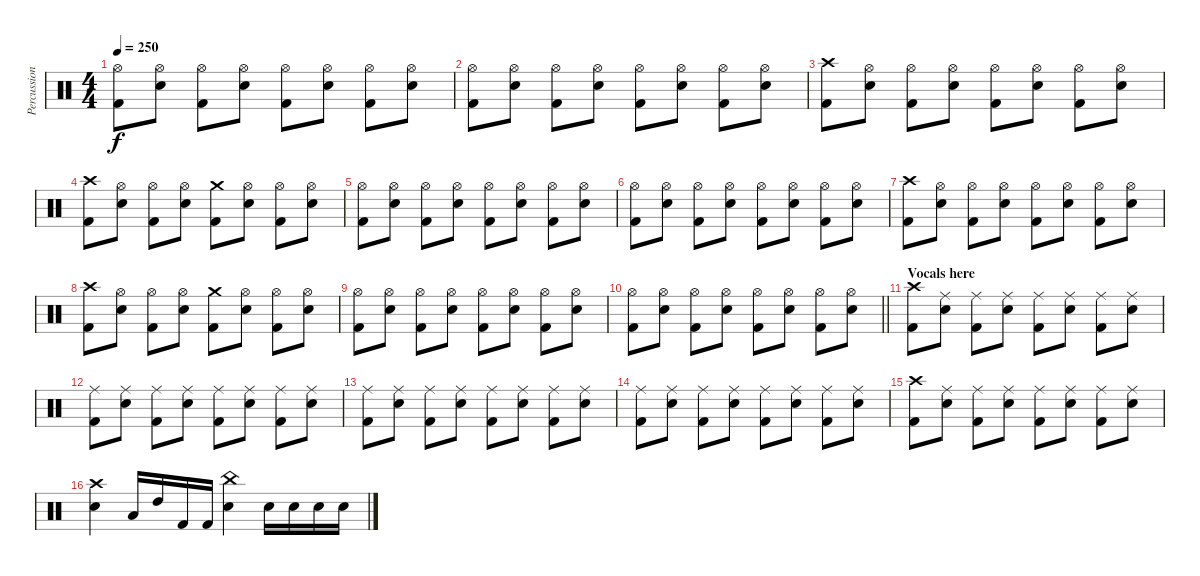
\track ("Percussion" "Percussion") {instrument percussion}
\staff {score}
\articulation defaults
\ts (4 4)
\tempo 250
\clef neutral
\ks c
("Hi-Hat (open)" "Kick (hit) 2").8{dy f} ("Hi-Hat (open)" "Electric Snare (hit)").8 ("Hi-Hat (open)" "Kick (hit) 2").8 ("Hi-Hat (open)" "Electric Snare (hit)").8 ("Hi-Hat (open)" "Kick (hit) 2").8 ("Hi-Hat (open)" "Electric Snare (hit)").8 ("Hi-Hat (open)" "Kick (hit) 2").8 ("Hi-Hat (open)" "Electric Snare (hit)").8 |
("Hi-Hat (open)" "Kick (hit) 2").8 ("Hi-Hat (open)" "Electric Snare (hit)").8 ("Hi-Hat (open)" "Kick (hit) 2").8 ("Hi-Hat (open)" "Electric Snare (hit)").8 ("Hi-Hat (open)" "Kick (hit) 2").8 ("Hi-Hat (open)" "Electric Snare (hit)").8 ("Hi-Hat (open)" "Kick (hit) 2").8 ("Hi-Hat (open)" "Electric Snare (hit)").8 |
("Crash high (hit)" "Kick (hit) 2").8 ("Hi-Hat (open)" "Electric Snare (hit)").8 ("Hi-Hat (open)" "Kick (hit) 2").8 ("Hi-Hat (open)" "Electric Snare (hit)").8 ("Hi-Hat (open)" "Kick (hit) 2").8 ("Hi-Hat (open)" "Electric Snare (hit)").8 ("Hi-Hat (open)" "Kick (hit) 2").8 ("Hi-Hat (open)" "Electric Snare (hit)").8 |
("Crash high (hit)" "Kick (hit) 2").8 ("Hi-Hat (open)" "Electric Snare (hit)").8 ("Hi-Hat (open)" "Kick (hit) 2").8 ("Hi-Hat (open)" "Electric Snare (hit)").8 ("Crash medium (hit)" "Kick (hit) 2").8 ("Hi-Hat (open)" "Electric Snare (hit)").8 ("Hi-Hat (open)" "Kick (hit) 2").8 ("Hi-Hat (open)" "Electric Snare (hit)").8 |
("Hi-Hat (open)" "Kick (hit) 2").8 ("Hi-Hat (open)" "Electric Snare (hit)").8 ("Hi-Hat (open)" "Kick (hit) 2").8 ("Hi-Hat (open)" "Electric Snare (hit)").8 ("Hi-Hat (open)" "Kick (hit) 2").8 ("Hi-Hat (open)" "Electric Snare (hit)").8 ("Hi-Hat (open)" "Kick (hit) 2").8 ("Hi-Hat (open)" "Electric Snare (hit)").8 |
("Hi-Hat (open)" "Kick (hit) 2").8 ("Hi-Hat (open)" "Electric Snare (hit)").8 ("Hi-Hat (open)" "Kick (hit) 2").8 ("Hi-Hat (open)" "Electric Snare (hit)").8 ("Hi-Hat (open)" "Kick (hit) 2").8 ("Hi-Hat (open)" "Electric Snare (hit)").8 ("Hi-Hat (open)" "Kick (hit) 2").8 ("Hi-Hat (open)" "Electric Snare (hit)").8 |
("Crash high (hit)" "Kick (hit) 2").8 ("Hi-Hat (open)" "Electric Snare (hit)").8 ("Hi-Hat (open)" "Kick (hit) 2").8 ("Hi-Hat (open)" "Electric Snare (hit)").8 ("Hi-Hat (open)" "Kick (hit) 2").8 ("Hi-Hat (open)" "Electric Snare (hit)").8 ("Hi-Hat (open)" "Kick (hit) 2").8 ("Hi-Hat (open)" "Electric Snare (hit)").8 |
("Crash high (hit)" "Kick (hit) 2").8 ("Hi-Hat (open)" "Electric Snare (hit)").8 ("Hi-Hat (open)" "Kick (hit) 2").8 ("Hi-Hat (open)" "Electric Snare (hit)").8 ("Crash medium (hit)" "Kick (hit) 2").8 ("Hi-Hat (open)" "Electric Snare (hit)").8 ("Hi-Hat (open)" "Kick (hit) 2").8 ("Hi-Hat (open)" "Electric Snare (hit)").8 |
("Hi-Hat (open)" "Kick (hit) 2").8 ("Hi-Hat (open)" "Electric Snare (hit)").8 ("Hi-Hat (open)" "Kick (hit) 2").8 ("Hi-Hat (open)" "Electric Snare (hit)").8 ("Hi-Hat (open)" "Kick (hit) 2").8 ("Hi-Hat (open)" "Electric Snare (hit)").8 ("Hi-Hat (open)" "Kick (hit) 2").8 ("Hi-Hat (open)" "Electric Snare (hit)").8 |
\barLineRight lightlight
("Hi-Hat (open)" "Kick (hit) 2").8 ("Hi-Hat (open)" "Electric Snare (hit)").8 ("Hi-Hat (open)" "Kick (hit) 2").8 ("Hi-Hat (open)" "Electric Snare (hit)").8 ("Hi-Hat (open)" "Kick (hit) 2").8 ("Hi-Hat (open)" "Electric Snare (hit)").8 ("Hi-Hat (open)" "Kick (hit) 2").8 ("Hi-Hat (open)" "Electric Snare (hit)").8 |
\section ("" "Vocals here")
("Crash high (hit)" "Kick (hit) 2").8 ("Ride (middle)" "Electric Snare (hit)").8 ("Ride (middle)" "Kick (hit) 2").8 ("Ride (middle)" "Electric Snare (hit)").8 ("Ride (middle)" "Kick (hit) 2").8 ("Ride (middle)" "Electric Snare (hit)").8 ("Ride (middle)" "Kick (hit) 2").8 ("Ride (middle)" "Electric Snare (hit)").8 |
("Ride (middle)" "Kick (hit) 2").8 ("Ride (middle)" "Electric Snare (hit)").8 ("Ride (middle)" "Kick (hit) 2").8 ("Ride (middle)" "Electric Snare (hit)").8 ("Ride (middle)" "Kick (hit) 2").8 ("Ride (middle)" "Electric Snare (hit)").8 ("Ride (middle)" "Kick (hit) 2").8 ("Ride (middle)" "Electric Snare (hit)").8 |
("Ride (middle)" "Kick (hit) 2").8 ("Ride (middle)" "Electric Snare (hit)").8 ("Ride (middle)" "Kick (hit) 2").8 ("Ride (middle)" "Electric Snare (hit)").8 ("Ride (middle)" "Kick (hit) 2").8 ("Ride (middle)" "Electric Snare (hit)").8 ("Ride (middle)" "Kick (hit) 2").8 ("Ride (middle)" "Electric Snare (hit)").8 |
("Ride (middle)" "Kick (hit) 2").8 ("Ride (middle)" "Electric Snare (hit)").8 ("Ride (middle)" "Kick (hit) 2").8 ("Ride (middle)" "Electric Snare (hit)").8 ("Ride (middle)" "Kick (hit) 2").8 ("Ride (middle)" "Electric Snare (hit)").8 ("Ride (middle)" "Kick (hit) 2").8 ("Ride (middle)" "Electric Snare (hit)").8 |
("Crash high (hit)" "Kick (hit) 2").8 ("Ride (middle)" "Electric Snare (hit)").8 ("Ride (middle)" "Kick (hit) 2").8 ("Ride (middle)" "Electric Snare (hit)").8 ("Ride (middle)" "Kick (hit) 2").8 ("Ride (middle)" "Electric Snare (hit)").8 ("Ride (middle)" "Kick (hit) 2").8 ("Ride (middle)" "Electric Snare (hit)").8 |
("Crash high (hit)" "Electric Snare (hit)").4 "Low Tom (hit)".16 "High Tom (hit)".16 "Kick (hit) 2".16 "Kick (hit) 2".16 ("China (hit)" "Electric Snare (hit)").4 "Electric Snare (hit)".16 "Electric Snare (hit)".16 "Electric Snare (hit)".16 "Electric Snare (hit)".16
